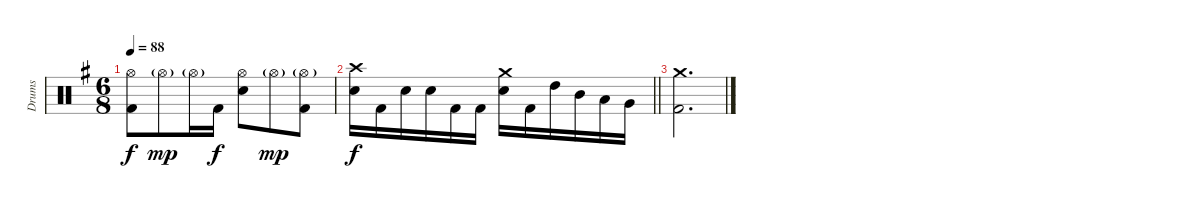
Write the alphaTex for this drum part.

\track ("Drums" "Drums") {instrument percussion}
\staff {score}
\articulation defaults
\ts (6 8)
\tempo 88
\clef neutral
\ks eminor
("Hi-Hat (open)" "Kick (hit) 2").8{dy f} "Hi-Hat (open)"{g}.8{dy mp} "Hi-Hat (open)"{g}.16 "Kick (hit) 2".16{dy f} ("Hi-Hat (open)" "Electric Snare (hit)").8 "Hi-Hat (open)"{g}.8{dy mp} ("Hi-Hat (open)"{g} "Kick (hit) 2").8 |
\barLineRight lightlight
("Crash high (hit)" "Electric Snare (hit)").16{dy f} "Kick (hit) 2".16 "Electric Snare (hit)".16 "Electric Snare (hit)".16 "Kick (hit) 2".16 "Kick (hit) 2".16 ("Crash medium (hit)" "Electric Snare (hit)").16 "Kick (hit) 2".16 "High Tom (hit)".16 "Mid Tom (hit)".16 "Low Tom (hit)".16 "Very Low Tom (hit)".16 |
\section ("" "")
("Crash medium (hit)" "Kick (hit) 2").2{d}
